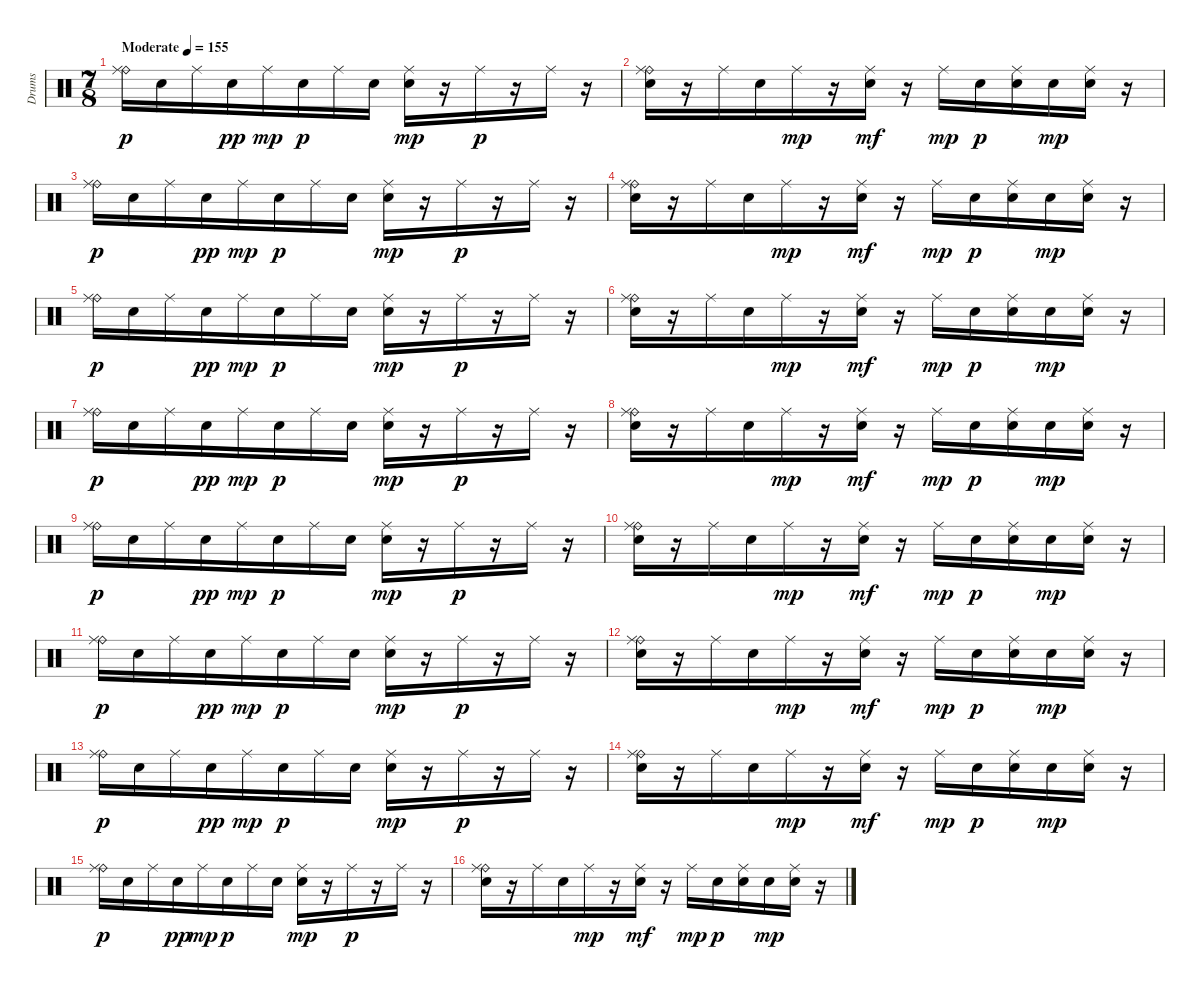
\track ("Drums" "Drums") {instrument percussion}
\staff {score}
\articulation defaults
\ts (7 8)
\tempo (155 "Moderate")
\clef neutral
\ks c
("Ride (bell)" "Ride (middle)").16{dy p} "Electric Snare (hit)".16 "Ride (middle)".16 "Electric Snare (hit)".16{dy pp} "Ride (middle)".16{dy mp} "Electric Snare (hit)".16{dy p} "Ride (middle)".16 "Electric Snare (hit)".16 ("Ride (middle)" "Electric Snare (hit)").16{dy mp} r.16 "Ride (middle)".16{dy p} r.16 "Ride (middle)".16 r.16 |
("Ride (bell)" "Ride (middle)" "Electric Snare (hit)").16 r.16 "Ride (middle)".16 "Electric Snare (hit)".16 "Ride (middle)".16{dy mp} r.16 ("Ride (middle)" "Electric Snare (hit)").16{dy mf} r.16 "Ride (middle)".16{dy mp} "Electric Snare (hit)".16{dy p} ("Ride (middle)" "Electric Snare (hit)").16 "Electric Snare (hit)".16{dy mp} ("Ride (middle)" "Electric Snare (hit)").16 r.16 |
("Ride (bell)" "Ride (middle)").16{dy p} "Electric Snare (hit)".16 "Ride (middle)".16 "Electric Snare (hit)".16{dy pp} "Ride (middle)".16{dy mp} "Electric Snare (hit)".16{dy p} "Ride (middle)".16 "Electric Snare (hit)".16 ("Ride (middle)" "Electric Snare (hit)").16{dy mp} r.16 "Ride (middle)".16{dy p} r.16 "Ride (middle)".16 r.16 |
("Ride (bell)" "Ride (middle)" "Electric Snare (hit)").16 r.16 "Ride (middle)".16 "Electric Snare (hit)".16 "Ride (middle)".16{dy mp} r.16 ("Ride (middle)" "Electric Snare (hit)").16{dy mf} r.16 "Ride (middle)".16{dy mp} "Electric Snare (hit)".16{dy p} ("Ride (middle)" "Electric Snare (hit)").16 "Electric Snare (hit)".16{dy mp} ("Ride (middle)" "Electric Snare (hit)").16 r.16 |
("Ride (bell)" "Ride (middle)").16{dy p} "Electric Snare (hit)".16 "Ride (middle)".16 "Electric Snare (hit)".16{dy pp} "Ride (middle)".16{dy mp} "Electric Snare (hit)".16{dy p} "Ride (middle)".16 "Electric Snare (hit)".16 ("Ride (middle)" "Electric Snare (hit)").16{dy mp} r.16 "Ride (middle)".16{dy p} r.16 "Ride (middle)".16 r.16 |
("Ride (bell)" "Ride (middle)" "Electric Snare (hit)").16 r.16 "Ride (middle)".16 "Electric Snare (hit)".16 "Ride (middle)".16{dy mp} r.16 ("Ride (middle)" "Electric Snare (hit)").16{dy mf} r.16 "Ride (middle)".16{dy mp} "Electric Snare (hit)".16{dy p} ("Ride (middle)" "Electric Snare (hit)").16 "Electric Snare (hit)".16{dy mp} ("Ride (middle)" "Electric Snare (hit)").16 r.16 |
("Ride (bell)" "Ride (middle)").16{dy p} "Electric Snare (hit)".16 "Ride (middle)".16 "Electric Snare (hit)".16{dy pp} "Ride (middle)".16{dy mp} "Electric Snare (hit)".16{dy p} "Ride (middle)".16 "Electric Snare (hit)".16 ("Ride (middle)" "Electric Snare (hit)").16{dy mp} r.16 "Ride (middle)".16{dy p} r.16 "Ride (middle)".16 r.16 |
("Ride (bell)" "Ride (middle)" "Electric Snare (hit)").16 r.16 "Ride (middle)".16 "Electric Snare (hit)".16 "Ride (middle)".16{dy mp} r.16 ("Ride (middle)" "Electric Snare (hit)").16{dy mf} r.16 "Ride (middle)".16{dy mp} "Electric Snare (hit)".16{dy p} ("Ride (middle)" "Electric Snare (hit)").16 "Electric Snare (hit)".16{dy mp} ("Ride (middle)" "Electric Snare (hit)").16 r.16 |
("Ride (bell)" "Ride (middle)").16{dy p} "Electric Snare (hit)".16 "Ride (middle)".16 "Electric Snare (hit)".16{dy pp} "Ride (middle)".16{dy mp} "Electric Snare (hit)".16{dy p} "Ride (middle)".16 "Electric Snare (hit)".16 ("Ride (middle)" "Electric Snare (hit)").16{dy mp} r.16 "Ride (middle)".16{dy p} r.16 "Ride (middle)".16 r.16 |
("Ride (bell)" "Ride (middle)" "Electric Snare (hit)").16 r.16 "Ride (middle)".16 "Electric Snare (hit)".16 "Ride (middle)".16{dy mp} r.16 ("Ride (middle)" "Electric Snare (hit)").16{dy mf} r.16 "Ride (middle)".16{dy mp} "Electric Snare (hit)".16{dy p} ("Ride (middle)" "Electric Snare (hit)").16 "Electric Snare (hit)".16{dy mp} ("Ride (middle)" "Electric Snare (hit)").16 r.16 |
("Ride (bell)" "Ride (middle)").16{dy p} "Electric Snare (hit)".16 "Ride (middle)".16 "Electric Snare (hit)".16{dy pp} "Ride (middle)".16{dy mp} "Electric Snare (hit)".16{dy p} "Ride (middle)".16 "Electric Snare (hit)".16 ("Ride (middle)" "Electric Snare (hit)").16{dy mp} r.16 "Ride (middle)".16{dy p} r.16 "Ride (middle)".16 r.16 |
("Ride (bell)" "Ride (middle)" "Electric Snare (hit)").16 r.16 "Ride (middle)".16 "Electric Snare (hit)".16 "Ride (middle)".16{dy mp} r.16 ("Ride (middle)" "Electric Snare (hit)").16{dy mf} r.16 "Ride (middle)".16{dy mp} "Electric Snare (hit)".16{dy p} ("Ride (middle)" "Electric Snare (hit)").16 "Electric Snare (hit)".16{dy mp} ("Ride (middle)" "Electric Snare (hit)").16 r.16 |
("Ride (bell)" "Ride (middle)").16{dy p} "Electric Snare (hit)".16 "Ride (middle)".16 "Electric Snare (hit)".16{dy pp} "Ride (middle)".16{dy mp} "Electric Snare (hit)".16{dy p} "Ride (middle)".16 "Electric Snare (hit)".16 ("Ride (middle)" "Electric Snare (hit)").16{dy mp} r.16 "Ride (middle)".16{dy p} r.16 "Ride (middle)".16 r.16 |
("Ride (bell)" "Ride (middle)" "Electric Snare (hit)").16 r.16 "Ride (middle)".16 "Electric Snare (hit)".16 "Ride (middle)".16{dy mp} r.16 ("Ride (middle)" "Electric Snare (hit)").16{dy mf} r.16 "Ride (middle)".16{dy mp} "Electric Snare (hit)".16{dy p} ("Ride (middle)" "Electric Snare (hit)").16 "Electric Snare (hit)".16{dy mp} ("Ride (middle)" "Electric Snare (hit)").16 r.16 |
("Ride (bell)" "Ride (middle)").16{dy p} "Electric Snare (hit)".16 "Ride (middle)".16 "Electric Snare (hit)".16{dy pp} "Ride (middle)".16{dy mp} "Electric Snare (hit)".16{dy p} "Ride (middle)".16 "Electric Snare (hit)".16 ("Ride (middle)" "Electric Snare (hit)").16{dy mp} r.16 "Ride (middle)".16{dy p} r.16 "Ride (middle)".16 r.16 |
("Ride (bell)" "Ride (middle)" "Electric Snare (hit)").16 r.16 "Ride (middle)".16 "Electric Snare (hit)".16 "Ride (middle)".16{dy mp} r.16 ("Ride (middle)" "Electric Snare (hit)").16{dy mf} r.16 "Ride (middle)".16{dy mp} "Electric Snare (hit)".16{dy p} ("Ride (middle)" "Electric Snare (hit)").16 "Electric Snare (hit)".16{dy mp} ("Ride (middle)" "Electric Snare (hit)").16 r.16
